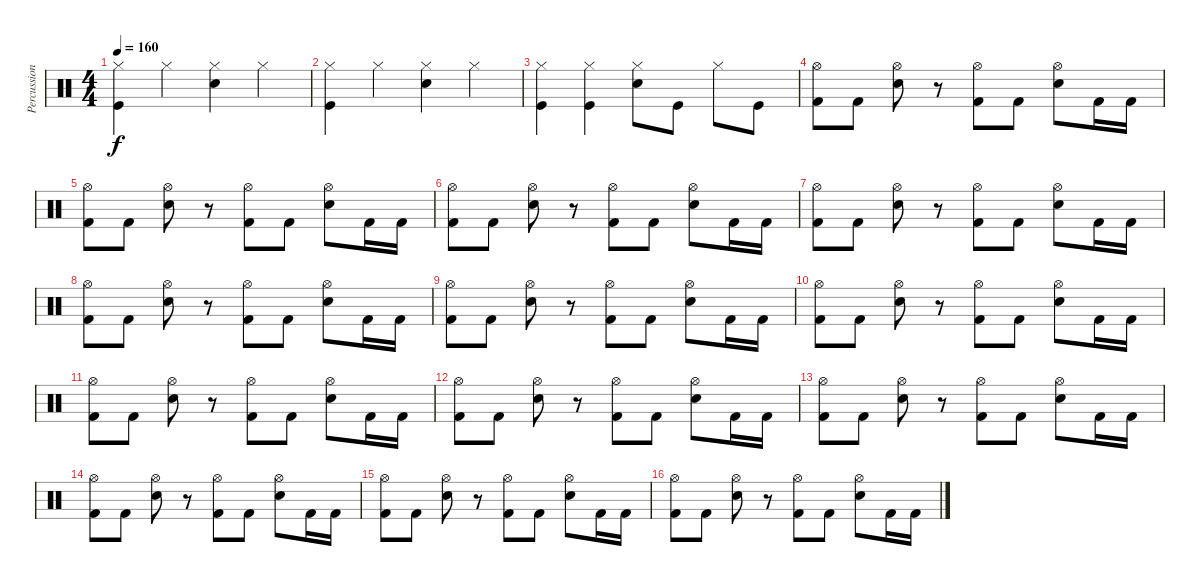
\track ("Percussion" "Percussion") {instrument percussion}
\staff {score}
\articulation defaults
\ts (4 4)
\tempo 160
\clef neutral
\ks c
("Hi-Hat (closed)" "Kick (hit)").4{dy f} "Hi-Hat (closed)".4 ("Hi-Hat (closed)" "Electric Snare (hit)").4 "Hi-Hat (closed)".4 |
("Hi-Hat (closed)" "Kick (hit)").4 "Hi-Hat (closed)".4 ("Hi-Hat (closed)" "Electric Snare (hit)").4 "Hi-Hat (closed)".4 |
("Hi-Hat (closed)" "Kick (hit)").4 ("Hi-Hat (closed)" "Kick (hit)").4 ("Hi-Hat (closed)" "Electric Snare (hit)").8 "Kick (hit)".8 "Hi-Hat (closed)".8 "Kick (hit)".8 |
("Kick (hit) 2" "Hi-Hat (open)").8 "Kick (hit) 2".8 ("Electric Snare (hit)" "Hi-Hat (open)").8 r.8 ("Kick (hit) 2" "Hi-Hat (open)").8 "Kick (hit) 2".8 ("Electric Snare (hit)" "Hi-Hat (open)").8 "Kick (hit) 2".16 "Kick (hit) 2".16 |
("Kick (hit) 2" "Hi-Hat (open)").8 "Kick (hit) 2".8 ("Electric Snare (hit)" "Hi-Hat (open)").8 r.8 ("Kick (hit) 2" "Hi-Hat (open)").8 "Kick (hit) 2".8 ("Electric Snare (hit)" "Hi-Hat (open)").8 "Kick (hit) 2".16 "Kick (hit) 2".16 |
("Kick (hit) 2" "Hi-Hat (open)").8 "Kick (hit) 2".8 ("Electric Snare (hit)" "Hi-Hat (open)").8 r.8 ("Kick (hit) 2" "Hi-Hat (open)").8 "Kick (hit) 2".8 ("Electric Snare (hit)" "Hi-Hat (open)").8 "Kick (hit) 2".16 "Kick (hit) 2".16 |
("Kick (hit) 2" "Hi-Hat (open)").8 "Kick (hit) 2".8 ("Electric Snare (hit)" "Hi-Hat (open)").8 r.8 ("Kick (hit) 2" "Hi-Hat (open)").8 "Kick (hit) 2".8 ("Electric Snare (hit)" "Hi-Hat (open)").8 "Kick (hit) 2".16 "Kick (hit) 2".16 |
("Kick (hit) 2" "Hi-Hat (open)").8 "Kick (hit) 2".8 ("Electric Snare (hit)" "Hi-Hat (open)").8 r.8 ("Kick (hit) 2" "Hi-Hat (open)").8 "Kick (hit) 2".8 ("Electric Snare (hit)" "Hi-Hat (open)").8 "Kick (hit) 2".16 "Kick (hit) 2".16 |
("Kick (hit) 2" "Hi-Hat (open)").8 "Kick (hit) 2".8 ("Electric Snare (hit)" "Hi-Hat (open)").8 r.8 ("Kick (hit) 2" "Hi-Hat (open)").8 "Kick (hit) 2".8 ("Electric Snare (hit)" "Hi-Hat (open)").8 "Kick (hit) 2".16 "Kick (hit) 2".16 |
("Kick (hit) 2" "Hi-Hat (open)").8 "Kick (hit) 2".8 ("Electric Snare (hit)" "Hi-Hat (open)").8 r.8 ("Kick (hit) 2" "Hi-Hat (open)").8 "Kick (hit) 2".8 ("Electric Snare (hit)" "Hi-Hat (open)").8 "Kick (hit) 2".16 "Kick (hit) 2".16 |
("Kick (hit) 2" "Hi-Hat (open)").8 "Kick (hit) 2".8 ("Electric Snare (hit)" "Hi-Hat (open)").8 r.8 ("Kick (hit) 2" "Hi-Hat (open)").8 "Kick (hit) 2".8 ("Electric Snare (hit)" "Hi-Hat (open)").8 "Kick (hit) 2".16 "Kick (hit) 2".16 |
("Kick (hit) 2" "Hi-Hat (open)").8 "Kick (hit) 2".8 ("Electric Snare (hit)" "Hi-Hat (open)").8 r.8 ("Kick (hit) 2" "Hi-Hat (open)").8 "Kick (hit) 2".8 ("Electric Snare (hit)" "Hi-Hat (open)").8 "Kick (hit) 2".16 "Kick (hit) 2".16 |
("Kick (hit) 2" "Hi-Hat (open)").8 "Kick (hit) 2".8 ("Electric Snare (hit)" "Hi-Hat (open)").8 r.8 ("Kick (hit) 2" "Hi-Hat (open)").8 "Kick (hit) 2".8 ("Electric Snare (hit)" "Hi-Hat (open)").8 "Kick (hit) 2".16 "Kick (hit) 2".16 |
("Kick (hit) 2" "Hi-Hat (open)").8 "Kick (hit) 2".8 ("Electric Snare (hit)" "Hi-Hat (open)").8 r.8 ("Kick (hit) 2" "Hi-Hat (open)").8 "Kick (hit) 2".8 ("Electric Snare (hit)" "Hi-Hat (open)").8 "Kick (hit) 2".16 "Kick (hit) 2".16 |
("Kick (hit) 2" "Hi-Hat (open)").8 "Kick (hit) 2".8 ("Electric Snare (hit)" "Hi-Hat (open)").8 r.8 ("Kick (hit) 2" "Hi-Hat (open)").8 "Kick (hit) 2".8 ("Electric Snare (hit)" "Hi-Hat (open)").8 "Kick (hit) 2".16 "Kick (hit) 2".16 |
("Kick (hit) 2" "Hi-Hat (open)").8 "Kick (hit) 2".8 ("Electric Snare (hit)" "Hi-Hat (open)").8 r.8 ("Kick (hit) 2" "Hi-Hat (open)").8 "Kick (hit) 2".8 ("Electric Snare (hit)" "Hi-Hat (open)").8 "Kick (hit) 2".16 "Kick (hit) 2".16
